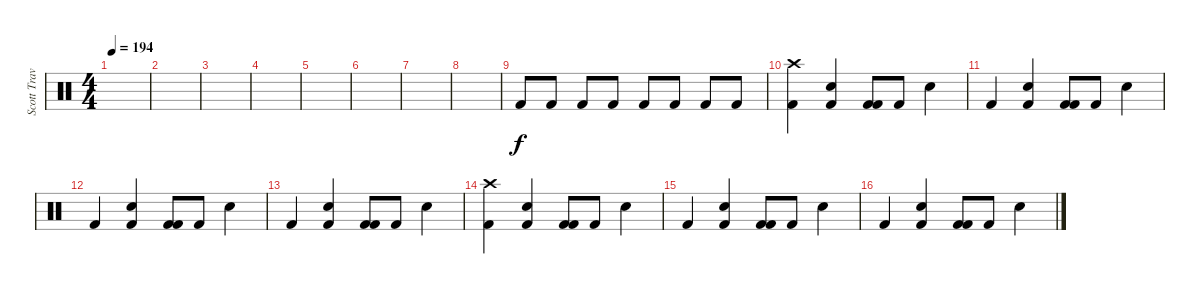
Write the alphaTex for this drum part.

\track ("Scott Travis" "Scott Trav") {instrument percussion}
\staff {score}
\articulation defaults
\ts (4 4)
\tempo 194
\clef neutral
\ks c
|
|
|
|
|
|
|
|
"Kick (hit) 2".8 "Kick (hit) 2".8 "Kick (hit) 2".8 "Kick (hit) 2".8 "Kick (hit) 2".8 "Kick (hit) 2".8 "Kick (hit) 2".8 "Kick (hit) 2".8 |
("Kick (hit) 2" "Crash high (hit)").4 ("Kick (hit) 2" "Snare (hit) 2").4 ("Kick (hit) 2" "Kick (hit) 2").8 "Kick (hit) 2".8 "Snare (hit) 2".4 |
"Kick (hit) 2".4 ("Kick (hit) 2" "Snare (hit) 2").4 ("Kick (hit) 2" "Kick (hit) 2").8 "Kick (hit) 2".8 "Snare (hit) 2".4 |
"Kick (hit) 2".4 ("Kick (hit) 2" "Snare (hit) 2").4 ("Kick (hit) 2" "Kick (hit) 2").8 "Kick (hit) 2".8 "Snare (hit) 2".4 |
"Kick (hit) 2".4 ("Kick (hit) 2" "Snare (hit) 2").4 ("Kick (hit) 2" "Kick (hit) 2").8 "Kick (hit) 2".8 "Snare (hit) 2".4 |
("Kick (hit) 2" "Crash high (hit)").4 ("Kick (hit) 2" "Snare (hit) 2").4 ("Kick (hit) 2" "Kick (hit) 2").8 "Kick (hit) 2".8 "Snare (hit) 2".4 |
"Kick (hit) 2".4 ("Kick (hit) 2" "Snare (hit) 2").4 ("Kick (hit) 2" "Kick (hit) 2").8 "Kick (hit) 2".8 "Snare (hit) 2".4 |
"Kick (hit) 2".4 ("Kick (hit) 2" "Snare (hit) 2").4 ("Kick (hit) 2" "Kick (hit) 2").8 "Kick (hit) 2".8 "Snare (hit) 2".4
